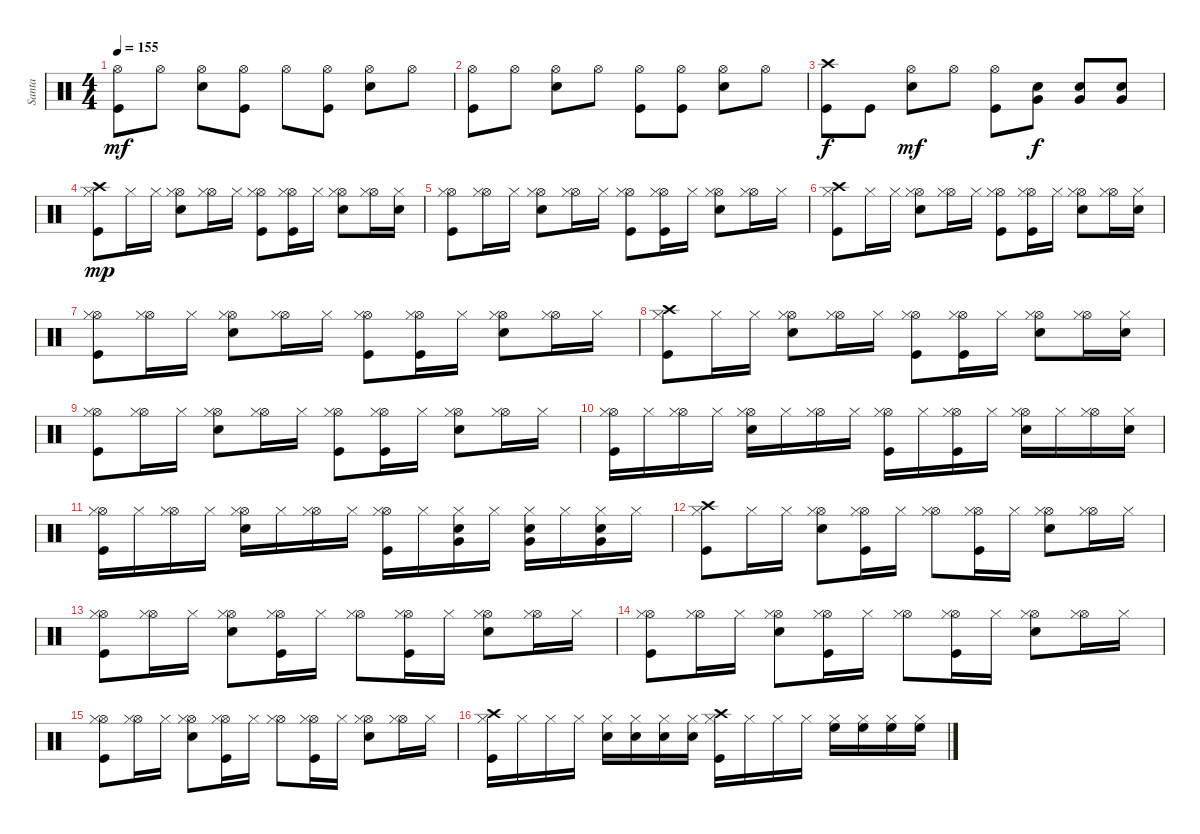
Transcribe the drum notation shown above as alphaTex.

\track ("Santa" "Santa") {instrument percussion}
\staff {score}
\articulation defaults
\ts (4 4)
\tempo 155
\clef neutral
\ks c
("Kick (hit)" "Hi-Hat (open)").8{dy mf} "Hi-Hat (open)".8 ("Snare (hit) 2" "Hi-Hat (open)").8 ("Kick (hit)" "Hi-Hat (open)").8 "Hi-Hat (open)".8 ("Kick (hit)" "Hi-Hat (open)").8 ("Snare (hit) 2" "Hi-Hat (open)").8 "Hi-Hat (open)".8 |
("Kick (hit)" "Hi-Hat (open)").8 "Hi-Hat (open)".8 ("Hi-Hat (open)" "Snare (hit) 2").8 "Hi-Hat (open)".8 ("Kick (hit)" "Hi-Hat (open)").8 ("Kick (hit)" "Hi-Hat (open)").8 ("Hi-Hat (open)" "Snare (hit) 2").8 "Hi-Hat (open)".8 |
("Kick (hit)" "Crash high (hit)").8{dy f} "Kick (hit)".8 ("Hi-Hat (open)" "Snare (hit) 2").8{dy mf} "Hi-Hat (open)".8 ("Kick (hit)" "Hi-Hat (open)").8 ("Snare (hit) 2" "Very Low Tom (hit)").8{dy f} ("Snare (hit) 2" "Very Low Tom (hit)").8 ("Snare (hit) 2" "Very Low Tom (hit)").8 |
("Kick (hit)" "Crash high (hit)" "Hi-Hat (closed)").8{dy mp} "Hi-Hat (closed)".16 "Hi-Hat (closed)".16 ("Snare (hit) 2" "Hi-Hat (open)" "Hi-Hat (closed)").8 ("Hi-Hat (open)" "Hi-Hat (closed)").16 "Hi-Hat (closed)".16 ("Kick (hit)" "Hi-Hat (open)" "Hi-Hat (closed)").8 ("Kick (hit)" "Hi-Hat (open)" "Hi-Hat (closed)").16 "Hi-Hat (closed)".16 ("Snare (hit) 2" "Hi-Hat (open)" "Hi-Hat (closed)").8 ("Hi-Hat (open)" "Hi-Hat (closed)").16 ("Snare (hit) 2" "Hi-Hat (closed)").16 |
("Kick (hit)" "Hi-Hat (open)" "Hi-Hat (closed)").8 ("Hi-Hat (open)" "Hi-Hat (closed)").16 "Hi-Hat (closed)".16 ("Snare (hit) 2" "Hi-Hat (open)" "Hi-Hat (closed)").8 ("Hi-Hat (open)" "Hi-Hat (closed)").16 "Hi-Hat (closed)".16 ("Kick (hit)" "Hi-Hat (open)" "Hi-Hat (closed)").8 ("Kick (hit)" "Hi-Hat (open)" "Hi-Hat (closed)").16 "Hi-Hat (closed)".16 ("Snare (hit) 2" "Hi-Hat (open)" "Hi-Hat (closed)").8 ("Hi-Hat (open)" "Hi-Hat (closed)").16 "Hi-Hat (closed)".16 |
("Kick (hit)" "Crash high (hit)" "Hi-Hat (closed)").8 "Hi-Hat (closed)".16 "Hi-Hat (closed)".16 ("Snare (hit) 2" "Hi-Hat (open)" "Hi-Hat (closed)").8 ("Hi-Hat (open)" "Hi-Hat (closed)").16 "Hi-Hat (closed)".16 ("Kick (hit)" "Hi-Hat (open)" "Hi-Hat (closed)").8 ("Kick (hit)" "Hi-Hat (open)" "Hi-Hat (closed)").16 "Hi-Hat (closed)".16 ("Snare (hit) 2" "Hi-Hat (open)" "Hi-Hat (closed)").8 ("Hi-Hat (open)" "Hi-Hat (closed)").16 ("Snare (hit) 2" "Hi-Hat (closed)").16 |
("Kick (hit)" "Hi-Hat (open)" "Hi-Hat (closed)").8 ("Hi-Hat (open)" "Hi-Hat (closed)").16 "Hi-Hat (closed)".16 ("Snare (hit) 2" "Hi-Hat (open)" "Hi-Hat (closed)").8 ("Hi-Hat (open)" "Hi-Hat (closed)").16 "Hi-Hat (closed)".16 ("Kick (hit)" "Hi-Hat (open)" "Hi-Hat (closed)").8 ("Kick (hit)" "Hi-Hat (open)" "Hi-Hat (closed)").16 "Hi-Hat (closed)".16 ("Snare (hit) 2" "Hi-Hat (open)" "Hi-Hat (closed)").8 ("Hi-Hat (open)" "Hi-Hat (closed)").16 "Hi-Hat (closed)".16 |
("Kick (hit)" "Crash high (hit)" "Hi-Hat (closed)").8 "Hi-Hat (closed)".16 "Hi-Hat (closed)".16 ("Snare (hit) 2" "Hi-Hat (open)" "Hi-Hat (closed)").8 ("Hi-Hat (open)" "Hi-Hat (closed)").16 "Hi-Hat (closed)".16 ("Kick (hit)" "Hi-Hat (open)" "Hi-Hat (closed)").8 ("Kick (hit)" "Hi-Hat (open)" "Hi-Hat (closed)").16 "Hi-Hat (closed)".16 ("Snare (hit) 2" "Hi-Hat (open)" "Hi-Hat (closed)").8 ("Hi-Hat (open)" "Hi-Hat (closed)").16 ("Snare (hit) 2" "Hi-Hat (closed)").16 |
("Kick (hit)" "Hi-Hat (open)" "Hi-Hat (closed)").8 ("Hi-Hat (open)" "Hi-Hat (closed)").16 "Hi-Hat (closed)".16 ("Snare (hit) 2" "Hi-Hat (open)" "Hi-Hat (closed)").8 ("Hi-Hat (open)" "Hi-Hat (closed)").16 "Hi-Hat (closed)".16 ("Kick (hit)" "Hi-Hat (open)" "Hi-Hat (closed)").8 ("Kick (hit)" "Hi-Hat (open)" "Hi-Hat (closed)").16 "Hi-Hat (closed)".16 ("Snare (hit) 2" "Hi-Hat (open)" "Hi-Hat (closed)").8 ("Hi-Hat (open)" "Hi-Hat (closed)").16 "Hi-Hat (closed)".16 |
("Kick (hit)" "Hi-Hat (open)" "Hi-Hat (closed)").16 "Hi-Hat (closed)".16 ("Hi-Hat (open)" "Hi-Hat (closed)").16 "Hi-Hat (closed)".16 ("Snare (hit) 2" "Hi-Hat (open)" "Hi-Hat (closed)").16 "Hi-Hat (closed)".16 ("Hi-Hat (open)" "Hi-Hat (closed)").16 "Hi-Hat (closed)".16 ("Kick (hit)" "Hi-Hat (open)" "Hi-Hat (closed)").16 "Hi-Hat (closed)".16 ("Kick (hit)" "Hi-Hat (open)" "Hi-Hat (closed)").16 "Hi-Hat (closed)".16 ("Snare (hit) 2" "Hi-Hat (open)" "Hi-Hat (closed)").16 "Hi-Hat (closed)".16 ("Hi-Hat (open)" "Hi-Hat (closed)").16 ("Snare (hit) 2" "Hi-Hat (closed)").16 |
("Kick (hit)" "Hi-Hat (open)" "Hi-Hat (closed)").16 "Hi-Hat (closed)".16 ("Hi-Hat (open)" "Hi-Hat (closed)").16 "Hi-Hat (closed)".16 ("Snare (hit) 2" "Hi-Hat (open)" "Hi-Hat (closed)").16 "Hi-Hat (closed)".16 ("Hi-Hat (open)" "Hi-Hat (closed)").16 "Hi-Hat (closed)".16 ("Kick (hit)" "Hi-Hat (open)" "Hi-Hat (closed)").16 "Hi-Hat (closed)".16 ("Snare (hit) 2" "Very Low Tom (hit)" "Hi-Hat (closed)").16 "Hi-Hat (closed)".16 ("Snare (hit) 2" "Very Low Tom (hit)" "Hi-Hat (closed)").16 "Hi-Hat (closed)".16 ("Snare (hit) 2" "Very Low Tom (hit)" "Hi-Hat (closed)").16 "Hi-Hat (closed)".16 |
("Kick (hit)" "Crash high (hit)" "Hi-Hat (closed)").8 "Hi-Hat (closed)".16 "Hi-Hat (closed)".16 ("Snare (hit) 2" "Hi-Hat (open)" "Hi-Hat (closed)").8 ("Kick (hit)" "Hi-Hat (open)" "Hi-Hat (closed)").16 "Hi-Hat (closed)".16 ("Hi-Hat (open)" "Hi-Hat (closed)").8 ("Kick (hit)" "Hi-Hat (open)" "Hi-Hat (closed)").16 "Hi-Hat (closed)".16 ("Snare (hit) 2" "Hi-Hat (open)" "Hi-Hat (closed)").8 ("Hi-Hat (open)" "Hi-Hat (closed)").16 "Hi-Hat (closed)".16 |
("Kick (hit)" "Hi-Hat (open)" "Hi-Hat (closed)").8 ("Hi-Hat (open)" "Hi-Hat (closed)").16 "Hi-Hat (closed)".16 ("Snare (hit) 2" "Hi-Hat (open)" "Hi-Hat (closed)").8 ("Kick (hit)" "Hi-Hat (open)" "Hi-Hat (closed)").16 "Hi-Hat (closed)".16 ("Hi-Hat (open)" "Hi-Hat (closed)").8 ("Kick (hit)" "Hi-Hat (open)" "Hi-Hat (closed)").16 "Hi-Hat (closed)".16 ("Snare (hit) 2" "Hi-Hat (open)" "Hi-Hat (closed)").8 ("Hi-Hat (open)" "Hi-Hat (closed)").16 "Hi-Hat (closed)".16 |
("Kick (hit)" "Hi-Hat (open)" "Hi-Hat (closed)").8 ("Hi-Hat (open)" "Hi-Hat (closed)").16 "Hi-Hat (closed)".16 ("Snare (hit) 2" "Hi-Hat (open)" "Hi-Hat (closed)").8 ("Kick (hit)" "Hi-Hat (open)" "Hi-Hat (closed)").16 "Hi-Hat (closed)".16 ("Hi-Hat (open)" "Hi-Hat (closed)").8 ("Kick (hit)" "Hi-Hat (open)" "Hi-Hat (closed)").16 "Hi-Hat (closed)".16 ("Snare (hit) 2" "Hi-Hat (open)" "Hi-Hat (closed)").8 ("Hi-Hat (open)" "Hi-Hat (closed)").16 "Hi-Hat (closed)".16 |
("Kick (hit)" "Hi-Hat (open)" "Hi-Hat (closed)").8 ("Hi-Hat (open)" "Hi-Hat (closed)").16 "Hi-Hat (closed)".16 ("Snare (hit) 2" "Hi-Hat (open)" "Hi-Hat (closed)").8 ("Kick (hit)" "Hi-Hat (open)" "Hi-Hat (closed)").16 "Hi-Hat (closed)".16 ("Hi-Hat (open)" "Hi-Hat (closed)").8 ("Kick (hit)" "Hi-Hat (open)" "Hi-Hat (closed)").16 "Hi-Hat (closed)".16 ("Snare (hit) 2" "Hi-Hat (open)" "Hi-Hat (closed)").8 ("Hi-Hat (open)" "Hi-Hat (closed)").16 "Hi-Hat (closed)".16 |
("Kick (hit)" "Crash high (hit)" "Hi-Hat (closed)").16 "Hi-Hat (closed)".16 "Hi-Hat (closed)".16 "Hi-Hat (closed)".16 ("Snare (hit) 2" "Hi-Hat (closed)").16 ("Snare (hit) 2" "Hi-Hat (closed)").16 ("Snare (hit) 2" "Hi-Hat (closed)").16 ("Snare (hit) 2" "Hi-Hat (closed)").16 ("Kick (hit)" "Crash high (hit)" "Hi-Hat (closed)").16 "Hi-Hat (closed)".16 "Hi-Hat (closed)".16 "Hi-Hat (closed)".16 ("High Floor Tom (hit)" "Hi-Hat (closed)").16 ("High Floor Tom (hit)" "Hi-Hat (closed)").16 ("High Floor Tom (hit)" "Hi-Hat (closed)").16 ("High Floor Tom (hit)" "Hi-Hat (closed)").16
